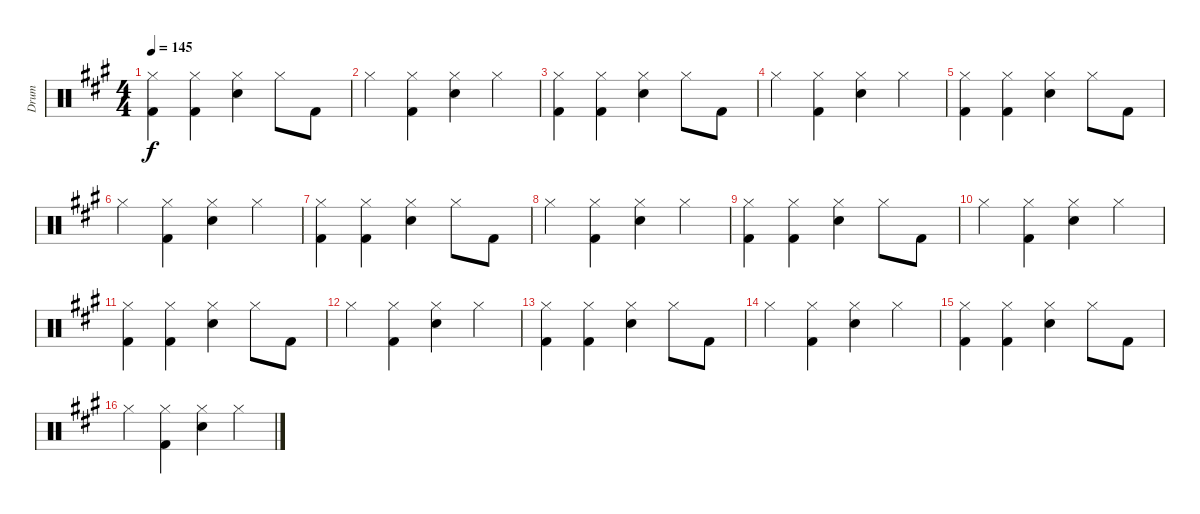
\track ("Drum" "Drum") {instrument percussion}
\staff {score}
\articulation defaults
\ts (4 4)
\tempo 145
\clef neutral
\ks a
("Hi-Hat (closed)" "Kick (hit) 2").4{dy f} ("Hi-Hat (closed)" "Kick (hit) 2").4 ("Hi-Hat (closed)" "Electric Snare (hit)").4 "Hi-Hat (closed)".8 "Kick (hit) 2".8 |
"Hi-Hat (closed)".4 ("Hi-Hat (closed)" "Kick (hit) 2").4 ("Hi-Hat (closed)" "Electric Snare (hit)").4 "Hi-Hat (closed)".4 |
("Hi-Hat (closed)" "Kick (hit) 2").4 ("Hi-Hat (closed)" "Kick (hit) 2").4 ("Hi-Hat (closed)" "Electric Snare (hit)").4 "Hi-Hat (closed)".8 "Kick (hit) 2".8 |
"Hi-Hat (closed)".4 ("Hi-Hat (closed)" "Kick (hit) 2").4 ("Hi-Hat (closed)" "Electric Snare (hit)").4 "Hi-Hat (closed)".4 |
("Hi-Hat (closed)" "Kick (hit) 2").4 ("Hi-Hat (closed)" "Kick (hit) 2").4 ("Hi-Hat (closed)" "Electric Snare (hit)").4 "Hi-Hat (closed)".8 "Kick (hit) 2".8 |
"Hi-Hat (closed)".4 ("Hi-Hat (closed)" "Kick (hit) 2").4 ("Hi-Hat (closed)" "Electric Snare (hit)").4 "Hi-Hat (closed)".4 |
("Hi-Hat (closed)" "Kick (hit) 2").4 ("Hi-Hat (closed)" "Kick (hit) 2").4 ("Hi-Hat (closed)" "Electric Snare (hit)").4 "Hi-Hat (closed)".8 "Kick (hit) 2".8 |
"Hi-Hat (closed)".4 ("Hi-Hat (closed)" "Kick (hit) 2").4 ("Hi-Hat (closed)" "Electric Snare (hit)").4 "Hi-Hat (closed)".4 |
("Hi-Hat (closed)" "Kick (hit) 2").4 ("Hi-Hat (closed)" "Kick (hit) 2").4 ("Hi-Hat (closed)" "Electric Snare (hit)").4 "Hi-Hat (closed)".8 "Kick (hit) 2".8 |
"Hi-Hat (closed)".4 ("Hi-Hat (closed)" "Kick (hit) 2").4 ("Hi-Hat (closed)" "Electric Snare (hit)").4 "Hi-Hat (closed)".4 |
("Hi-Hat (closed)" "Kick (hit) 2").4 ("Hi-Hat (closed)" "Kick (hit) 2").4 ("Hi-Hat (closed)" "Electric Snare (hit)").4 "Hi-Hat (closed)".8 "Kick (hit) 2".8 |
"Hi-Hat (closed)".4 ("Hi-Hat (closed)" "Kick (hit) 2").4 ("Hi-Hat (closed)" "Electric Snare (hit)").4 "Hi-Hat (closed)".4 |
("Hi-Hat (closed)" "Kick (hit) 2").4 ("Hi-Hat (closed)" "Kick (hit) 2").4 ("Hi-Hat (closed)" "Electric Snare (hit)").4 "Hi-Hat (closed)".8 "Kick (hit) 2".8 |
"Hi-Hat (closed)".4 ("Hi-Hat (closed)" "Kick (hit) 2").4 ("Hi-Hat (closed)" "Electric Snare (hit)").4 "Hi-Hat (closed)".4 |
("Hi-Hat (closed)" "Kick (hit) 2").4 ("Hi-Hat (closed)" "Kick (hit) 2").4 ("Hi-Hat (closed)" "Electric Snare (hit)").4 "Hi-Hat (closed)".8 "Kick (hit) 2".8 |
"Hi-Hat (closed)".4 ("Hi-Hat (closed)" "Kick (hit) 2").4 ("Hi-Hat (closed)" "Electric Snare (hit)").4 "Hi-Hat (closed)".4
